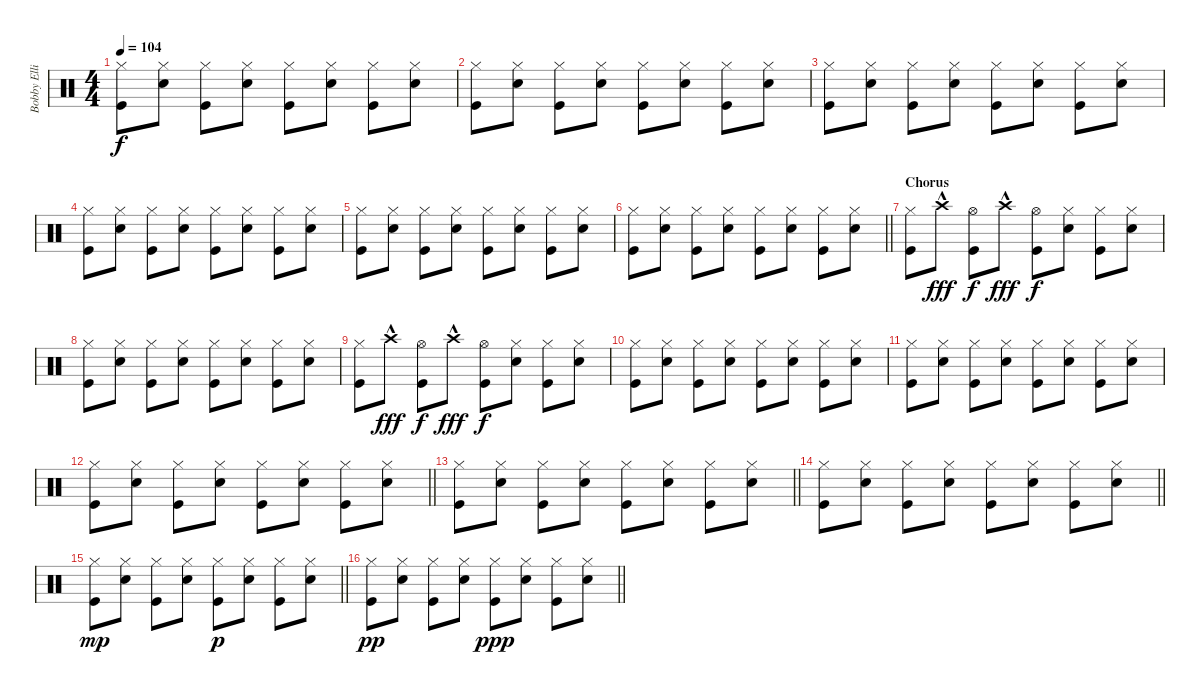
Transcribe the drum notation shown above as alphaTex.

\track ("Bobby Elliott" "Bobby Elli") {instrument percussion}
\staff {score}
\articulation defaults
\ts (4 4)
\tempo 104
\clef neutral
\ks c
("Hi-Hat (closed)" "Kick (hit)").8{dy f} ("Hi-Hat (closed)" "Snare (hit) 2").8 ("Hi-Hat (closed)" "Kick (hit)").8 ("Hi-Hat (closed)" "Snare (hit) 2").8 ("Hi-Hat (closed)" "Kick (hit)").8 ("Hi-Hat (closed)" "Snare (hit) 2").8 ("Hi-Hat (closed)" "Kick (hit)").8 ("Hi-Hat (closed)" "Snare (hit) 2").8 |
("Hi-Hat (closed)" "Kick (hit)").8 ("Hi-Hat (closed)" "Snare (hit) 2").8 ("Hi-Hat (closed)" "Kick (hit)").8 ("Hi-Hat (closed)" "Snare (hit) 2").8 ("Hi-Hat (closed)" "Kick (hit)").8 ("Hi-Hat (closed)" "Snare (hit) 2").8 ("Hi-Hat (closed)" "Kick (hit)").8 ("Hi-Hat (closed)" "Snare (hit) 2").8 |
("Hi-Hat (closed)" "Kick (hit)").8 ("Hi-Hat (closed)" "Snare (hit) 2").8 ("Hi-Hat (closed)" "Kick (hit)").8 ("Hi-Hat (closed)" "Snare (hit) 2").8 ("Hi-Hat (closed)" "Kick (hit)").8 ("Hi-Hat (closed)" "Snare (hit) 2").8 ("Hi-Hat (closed)" "Kick (hit)").8 ("Hi-Hat (closed)" "Snare (hit) 2").8 |
("Hi-Hat (closed)" "Kick (hit)").8 ("Hi-Hat (closed)" "Snare (hit) 2").8 ("Hi-Hat (closed)" "Kick (hit)").8 ("Hi-Hat (closed)" "Snare (hit) 2").8 ("Hi-Hat (closed)" "Kick (hit)").8 ("Hi-Hat (closed)" "Snare (hit) 2").8 ("Hi-Hat (closed)" "Kick (hit)").8 ("Hi-Hat (closed)" "Snare (hit) 2").8 |
("Hi-Hat (closed)" "Kick (hit)").8 ("Hi-Hat (closed)" "Snare (hit) 2").8 ("Hi-Hat (closed)" "Kick (hit)").8 ("Hi-Hat (closed)" "Snare (hit) 2").8 ("Hi-Hat (closed)" "Kick (hit)").8 ("Hi-Hat (closed)" "Snare (hit) 2").8 ("Hi-Hat (closed)" "Kick (hit)").8 ("Hi-Hat (closed)" "Snare (hit) 2").8 |
\barLineRight lightlight
("Hi-Hat (closed)" "Kick (hit)").8 ("Hi-Hat (closed)" "Snare (hit) 2").8 ("Hi-Hat (closed)" "Kick (hit)").8 ("Hi-Hat (closed)" "Snare (hit) 2").8 ("Hi-Hat (closed)" "Kick (hit)").8 ("Hi-Hat (closed)" "Snare (hit) 2").8 ("Hi-Hat (closed)" "Kick (hit)").8 ("Hi-Hat (closed)" "Snare (hit) 2").8 |
\section ("" "Chorus")
("Hi-Hat (closed)" "Kick (hit)").8 "Crash high (hit)"{hac}.8{dy fff} ("Hi-Hat (open)" "Kick (hit)").8{dy f} "Crash high (hit)"{hac}.8{dy fff} ("Hi-Hat (open)" "Kick (hit)").8{dy f} ("Hi-Hat (closed)" "Snare (hit) 2").8 ("Hi-Hat (closed)" "Kick (hit)").8 ("Hi-Hat (closed)" "Snare (hit) 2").8 |
("Hi-Hat (closed)" "Kick (hit)").8 ("Hi-Hat (closed)" "Snare (hit) 2").8 ("Hi-Hat (closed)" "Kick (hit)").8 ("Hi-Hat (closed)" "Snare (hit) 2").8 ("Hi-Hat (closed)" "Kick (hit)").8 ("Hi-Hat (closed)" "Snare (hit) 2").8 ("Hi-Hat (closed)" "Kick (hit)").8 ("Hi-Hat (closed)" "Snare (hit) 2").8 |
("Hi-Hat (closed)" "Kick (hit)").8 "Crash high (hit)"{hac}.8{dy fff} ("Hi-Hat (open)" "Kick (hit)").8{dy f} "Crash high (hit)"{hac}.8{dy fff} ("Hi-Hat (open)" "Kick (hit)").8{dy f} ("Hi-Hat (closed)" "Snare (hit) 2").8 ("Hi-Hat (closed)" "Kick (hit)").8 ("Hi-Hat (closed)" "Snare (hit) 2").8 |
("Hi-Hat (closed)" "Kick (hit)").8 ("Hi-Hat (closed)" "Snare (hit) 2").8 ("Hi-Hat (closed)" "Kick (hit)").8 ("Hi-Hat (closed)" "Snare (hit) 2").8 ("Hi-Hat (closed)" "Kick (hit)").8 ("Hi-Hat (closed)" "Snare (hit) 2").8 ("Hi-Hat (closed)" "Kick (hit)").8 ("Hi-Hat (closed)" "Snare (hit) 2").8 |
("Hi-Hat (closed)" "Kick (hit)").8 ("Hi-Hat (closed)" "Snare (hit) 2").8 ("Hi-Hat (closed)" "Kick (hit)").8 ("Hi-Hat (closed)" "Snare (hit) 2").8 ("Hi-Hat (closed)" "Kick (hit)").8 ("Hi-Hat (closed)" "Snare (hit) 2").8 ("Hi-Hat (closed)" "Kick (hit)").8 ("Hi-Hat (closed)" "Snare (hit) 2").8 |
\barLineRight lightlight
("Hi-Hat (closed)" "Kick (hit)").8 ("Hi-Hat (closed)" "Snare (hit) 2").8 ("Hi-Hat (closed)" "Kick (hit)").8 ("Hi-Hat (closed)" "Snare (hit) 2").8 ("Hi-Hat (closed)" "Kick (hit)").8 ("Hi-Hat (closed)" "Snare (hit) 2").8 ("Hi-Hat (closed)" "Kick (hit)").8 ("Hi-Hat (closed)" "Snare (hit) 2").8 |
\barLineRight lightlight
("Hi-Hat (closed)" "Kick (hit)").8 ("Hi-Hat (closed)" "Snare (hit) 2").8 ("Hi-Hat (closed)" "Kick (hit)").8 ("Hi-Hat (closed)" "Snare (hit) 2").8 ("Hi-Hat (closed)" "Kick (hit)").8 ("Hi-Hat (closed)" "Snare (hit) 2").8 ("Hi-Hat (closed)" "Kick (hit)").8 ("Hi-Hat (closed)" "Snare (hit) 2").8 |
\barLineRight lightlight
("Hi-Hat (closed)" "Kick (hit)").8 ("Hi-Hat (closed)" "Snare (hit) 2").8 ("Hi-Hat (closed)" "Kick (hit)").8 ("Hi-Hat (closed)" "Snare (hit) 2").8 ("Hi-Hat (closed)" "Kick (hit)").8 ("Hi-Hat (closed)" "Snare (hit) 2").8 ("Hi-Hat (closed)" "Kick (hit)").8 ("Hi-Hat (closed)" "Snare (hit) 2").8 |
\barLineRight lightlight
("Hi-Hat (closed)" "Kick (hit)").8{dy mp} ("Hi-Hat (closed)" "Snare (hit) 2").8 ("Hi-Hat (closed)" "Kick (hit)").8 ("Hi-Hat (closed)" "Snare (hit) 2").8 ("Hi-Hat (closed)" "Kick (hit)").8{dy p} ("Hi-Hat (closed)" "Snare (hit) 2").8 ("Hi-Hat (closed)" "Kick (hit)").8 ("Hi-Hat (closed)" "Snare (hit) 2").8 |
\barLineRight lightlight
("Hi-Hat (closed)" "Kick (hit)").8{dy pp} ("Hi-Hat (closed)" "Snare (hit) 2").8 ("Hi-Hat (closed)" "Kick (hit)").8 ("Hi-Hat (closed)" "Snare (hit) 2").8 ("Hi-Hat (closed)" "Kick (hit)").8{dy ppp} ("Hi-Hat (closed)" "Snare (hit) 2").8 ("Hi-Hat (closed)" "Kick (hit)").8 ("Hi-Hat (closed)" "Snare (hit) 2").8
